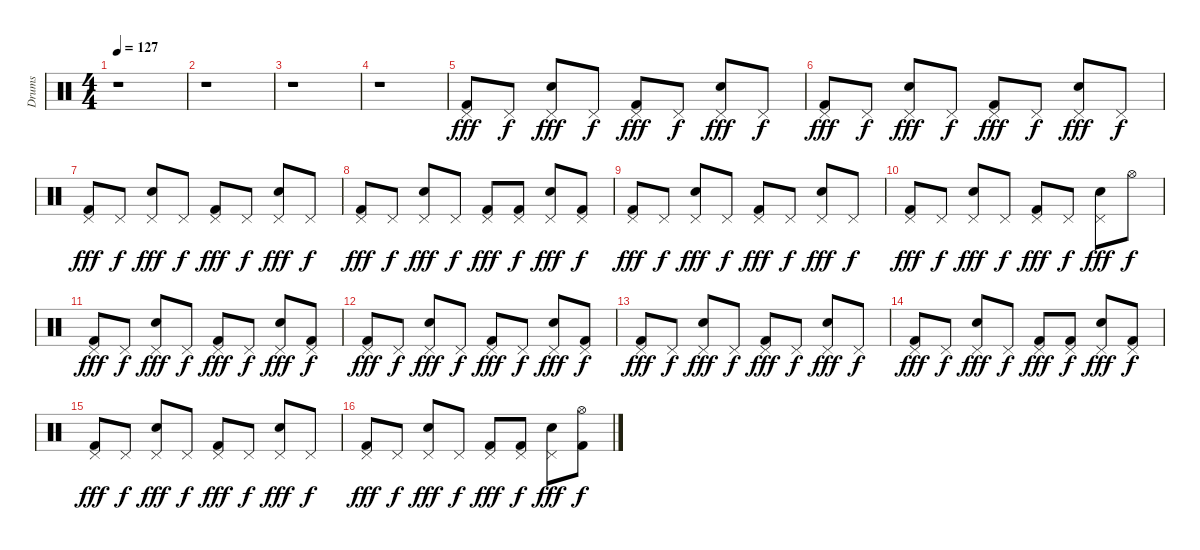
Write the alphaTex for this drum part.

\track ("Drums" "Drums") {instrument percussion}
\staff {score}
\articulation defaults
\ts (4 4)
\tempo 127
\clef neutral
\ks c
r.1{dy fff} |
r.1 |
r.1 |
r.1 |
("Pedal Hi-Hat (hit)" "Kick (hit) 2").8 "Pedal Hi-Hat (hit)".8{dy f} ("Pedal Hi-Hat (hit)" "Snare (hit) 2").8{dy fff} "Pedal Hi-Hat (hit)".8{dy f} ("Pedal Hi-Hat (hit)" "Kick (hit) 2").8{dy fff} "Pedal Hi-Hat (hit)".8{dy f} ("Pedal Hi-Hat (hit)" "Snare (hit) 2").8{dy fff} "Pedal Hi-Hat (hit)".8{dy f} |
("Pedal Hi-Hat (hit)" "Kick (hit) 2").8{dy fff} "Pedal Hi-Hat (hit)".8{dy f} ("Pedal Hi-Hat (hit)" "Snare (hit) 2").8{dy fff} "Pedal Hi-Hat (hit)".8{dy f} ("Pedal Hi-Hat (hit)" "Kick (hit) 2").8{dy fff} "Pedal Hi-Hat (hit)".8{dy f} ("Pedal Hi-Hat (hit)" "Snare (hit) 2").8{dy fff} "Pedal Hi-Hat (hit)".8{dy f} |
("Pedal Hi-Hat (hit)" "Kick (hit) 2").8{dy fff} "Pedal Hi-Hat (hit)".8{dy f} ("Pedal Hi-Hat (hit)" "Snare (hit) 2").8{dy fff} "Pedal Hi-Hat (hit)".8{dy f} ("Pedal Hi-Hat (hit)" "Kick (hit) 2").8{dy fff} "Pedal Hi-Hat (hit)".8{dy f} ("Pedal Hi-Hat (hit)" "Snare (hit) 2").8{dy fff} "Pedal Hi-Hat (hit)".8{dy f} |
("Pedal Hi-Hat (hit)" "Kick (hit) 2").8{dy fff} "Pedal Hi-Hat (hit)".8{dy f} ("Pedal Hi-Hat (hit)" "Snare (hit) 2").8{dy fff} "Pedal Hi-Hat (hit)".8{dy f} ("Pedal Hi-Hat (hit)" "Kick (hit) 2").8{dy fff} ("Pedal Hi-Hat (hit)" "Kick (hit) 2").8{dy f} ("Pedal Hi-Hat (hit)" "Snare (hit) 2").8{dy fff} ("Pedal Hi-Hat (hit)" "Kick (hit) 2").8{dy f} |
("Pedal Hi-Hat (hit)" "Kick (hit) 2").8{dy fff} "Pedal Hi-Hat (hit)".8{dy f} ("Pedal Hi-Hat (hit)" "Snare (hit) 2").8{dy fff} "Pedal Hi-Hat (hit)".8{dy f} ("Pedal Hi-Hat (hit)" "Kick (hit) 2").8{dy fff} "Pedal Hi-Hat (hit)".8{dy f} ("Pedal Hi-Hat (hit)" "Snare (hit) 2").8{dy fff} "Pedal Hi-Hat (hit)".8{dy f} |
("Pedal Hi-Hat (hit)" "Kick (hit) 2").8{dy fff} "Pedal Hi-Hat (hit)".8{dy f} ("Pedal Hi-Hat (hit)" "Snare (hit) 2").8{dy fff} "Pedal Hi-Hat (hit)".8{dy f} ("Pedal Hi-Hat (hit)" "Kick (hit) 2").8{dy fff} "Pedal Hi-Hat (hit)".8{dy f} ("Pedal Hi-Hat (hit)" "Snare (hit) 2").8{dy fff} "Hi-Hat (open)".8{dy f} |
("Pedal Hi-Hat (hit)" "Kick (hit) 2").8{dy fff} "Pedal Hi-Hat (hit)".8{dy f} ("Pedal Hi-Hat (hit)" "Snare (hit) 2").8{dy fff} "Pedal Hi-Hat (hit)".8{dy f} ("Pedal Hi-Hat (hit)" "Kick (hit) 2").8{dy fff} "Pedal Hi-Hat (hit)".8{dy f} ("Pedal Hi-Hat (hit)" "Snare (hit) 2").8{dy fff} ("Pedal Hi-Hat (hit)" "Kick (hit) 2").8{dy f} |
("Pedal Hi-Hat (hit)" "Kick (hit) 2").8{dy fff} "Pedal Hi-Hat (hit)".8{dy f} ("Pedal Hi-Hat (hit)" "Snare (hit) 2").8{dy fff} "Pedal Hi-Hat (hit)".8{dy f} ("Pedal Hi-Hat (hit)" "Kick (hit) 2").8{dy fff} "Pedal Hi-Hat (hit)".8{dy f} ("Pedal Hi-Hat (hit)" "Snare (hit) 2").8{dy fff} ("Pedal Hi-Hat (hit)" "Kick (hit) 2").8{dy f} |
("Pedal Hi-Hat (hit)" "Kick (hit) 2").8{dy fff} "Pedal Hi-Hat (hit)".8{dy f} ("Pedal Hi-Hat (hit)" "Snare (hit) 2").8{dy fff} "Pedal Hi-Hat (hit)".8{dy f} ("Pedal Hi-Hat (hit)" "Kick (hit) 2").8{dy fff} "Pedal Hi-Hat (hit)".8{dy f} ("Pedal Hi-Hat (hit)" "Snare (hit) 2").8{dy fff} "Pedal Hi-Hat (hit)".8{dy f} |
("Pedal Hi-Hat (hit)" "Kick (hit) 2").8{dy fff} "Pedal Hi-Hat (hit)".8{dy f} ("Pedal Hi-Hat (hit)" "Snare (hit) 2").8{dy fff} "Pedal Hi-Hat (hit)".8{dy f} ("Pedal Hi-Hat (hit)" "Kick (hit) 2").8{dy fff} ("Pedal Hi-Hat (hit)" "Kick (hit) 2").8{dy f} ("Pedal Hi-Hat (hit)" "Snare (hit) 2").8{dy fff} ("Pedal Hi-Hat (hit)" "Kick (hit) 2").8{dy f} |
("Pedal Hi-Hat (hit)" "Kick (hit) 2").8{dy fff} "Pedal Hi-Hat (hit)".8{dy f} ("Pedal Hi-Hat (hit)" "Snare (hit) 2").8{dy fff} "Pedal Hi-Hat (hit)".8{dy f} ("Pedal Hi-Hat (hit)" "Kick (hit) 2").8{dy fff} "Pedal Hi-Hat (hit)".8{dy f} ("Pedal Hi-Hat (hit)" "Snare (hit) 2").8{dy fff} "Pedal Hi-Hat (hit)".8{dy f} |
("Pedal Hi-Hat (hit)" "Kick (hit) 2").8{dy fff} "Pedal Hi-Hat (hit)".8{dy f} ("Pedal Hi-Hat (hit)" "Snare (hit) 2").8{dy fff} "Pedal Hi-Hat (hit)".8{dy f} ("Pedal Hi-Hat (hit)" "Kick (hit) 2").8{dy fff} ("Pedal Hi-Hat (hit)" "Kick (hit) 2").8{dy f} ("Pedal Hi-Hat (hit)" "Snare (hit) 2").8{dy fff} ("Hi-Hat (open)" "Kick (hit) 2").8{dy f}
